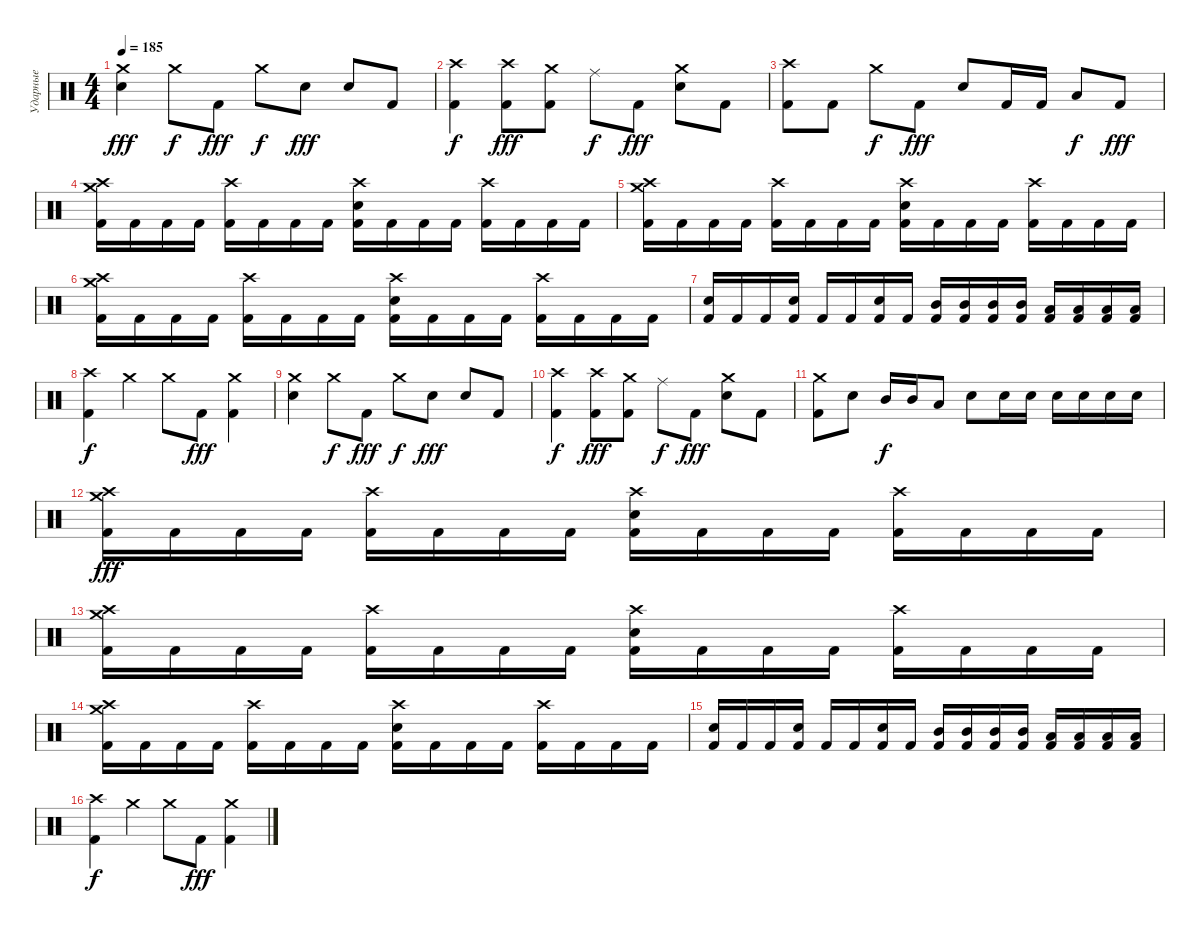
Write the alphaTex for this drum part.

\track ("Ударные" "Ударные") {instrument percussion}
\staff {score}
\articulation defaults
\ts (4 4)
\tempo 185
\clef neutral
\ks c
("Crash medium (hit)" "Electric Snare (hit)").4{dy fff} "Crash medium (hit)".8{dy f} "Kick (hit) 2".8{dy fff} "Crash medium (hit)".8{dy f} "Electric Snare (hit)".8{dy fff} "Electric Snare (hit)".8 "Kick (hit) 2".8 |
("Crash high (hit)" "Kick (hit) 2").4{dy f} ("Crash high (hit)" "Kick (hit) 2").8{dy fff} ("Crash medium (hit)" "Kick (hit) 2").8 "Ride (middle)".8{dy f} "Kick (hit) 2".8{dy fff} ("Crash medium (hit)" "Electric Snare (hit)").8 "Kick (hit) 2".8 |
("Crash high (hit)" "Kick (hit) 2").8 "Kick (hit) 2".8 "Crash medium (hit)".8{dy f} "Kick (hit) 2".8{dy fff} "Electric Snare (hit)".8 "Kick (hit) 2".16 "Kick (hit) 2".16 "Low Floor Tom (hit)".8{dy f} "Kick (hit) 2".8{dy fff} |
("Crash medium (hit)" "Crash high (hit)" "Kick (hit) 2").16 "Kick (hit) 2".16 "Kick (hit) 2".16 "Kick (hit) 2".16 ("Crash high (hit)" "Kick (hit) 2").16 "Kick (hit) 2".16 "Kick (hit) 2".16 "Kick (hit) 2".16 ("Crash high (hit)" "Electric Snare (hit)" "Kick (hit) 2").16 "Kick (hit) 2".16 "Kick (hit) 2".16 "Kick (hit) 2".16 ("Crash high (hit)" "Kick (hit) 2").16 "Kick (hit) 2".16 "Kick (hit) 2".16 "Kick (hit) 2".16 |
("Crash medium (hit)" "Crash high (hit)" "Kick (hit) 2").16 "Kick (hit) 2".16 "Kick (hit) 2".16 "Kick (hit) 2".16 ("Crash high (hit)" "Kick (hit) 2").16 "Kick (hit) 2".16 "Kick (hit) 2".16 "Kick (hit) 2".16 ("Crash high (hit)" "Electric Snare (hit)" "Kick (hit) 2").16 "Kick (hit) 2".16 "Kick (hit) 2".16 "Kick (hit) 2".16 ("Crash high (hit)" "Kick (hit) 2").16 "Kick (hit) 2".16 "Kick (hit) 2".16 "Kick (hit) 2".16 |
("Crash medium (hit)" "Crash high (hit)" "Kick (hit) 2").16 "Kick (hit) 2".16 "Kick (hit) 2".16 "Kick (hit) 2".16 ("Crash high (hit)" "Kick (hit) 2").16 "Kick (hit) 2".16 "Kick (hit) 2".16 "Kick (hit) 2".16 ("Crash high (hit)" "Electric Snare (hit)" "Kick (hit) 2").16 "Kick (hit) 2".16 "Kick (hit) 2".16 "Kick (hit) 2".16 ("Crash high (hit)" "Kick (hit) 2").16 "Kick (hit) 2".16 "Kick (hit) 2".16 "Kick (hit) 2".16 |
("Electric Snare (hit)" "Kick (hit) 2").16 "Kick (hit) 2".16 "Kick (hit) 2".16 ("Electric Snare (hit)" "Kick (hit) 2").16 "Kick (hit) 2".16 "Kick (hit) 2".16 ("Electric Snare (hit)" "Kick (hit) 2").16 "Kick (hit) 2".16 ("Mid Tom (hit)" "Kick (hit) 2").16 ("Mid Tom (hit)" "Kick (hit) 2").16 ("Mid Tom (hit)" "Kick (hit) 2").16 ("Mid Tom (hit)" "Kick (hit) 2").16 ("Low Tom (hit)" "Kick (hit) 2").16 ("Low Tom (hit)" "Kick (hit) 2").16 ("Low Tom (hit)" "Kick (hit) 2").16 ("Low Tom (hit)" "Kick (hit) 2").16 |
("Crash high (hit)" "Kick (hit) 2").4{dy f} "Crash medium (hit)".4 "Crash medium (hit)".8 "Kick (hit) 2".8{dy fff} ("Crash medium (hit)" "Kick (hit) 2").4 |
("Crash medium (hit)" "Electric Snare (hit)").4 "Crash medium (hit)".8{dy f} "Kick (hit) 2".8{dy fff} "Crash medium (hit)".8{dy f} "Electric Snare (hit)".8{dy fff} "Electric Snare (hit)".8 "Kick (hit) 2".8 |
("Crash high (hit)" "Kick (hit) 2").4{dy f} ("Crash high (hit)" "Kick (hit) 2").8{dy fff} ("Crash medium (hit)" "Kick (hit) 2").8 "Ride (middle)".8{dy f} "Kick (hit) 2".8{dy fff} ("Crash medium (hit)" "Electric Snare (hit)").8 "Kick (hit) 2".8 |
("Crash medium (hit)" "Kick (hit) 2").8 "Electric Snare (hit)".8 "Mid Tom (hit)".16{dy f} "Mid Tom (hit)".16 "Low Tom (hit)".8 "Electric Snare (hit)".8 "Electric Snare (hit)".16 "Electric Snare (hit)".16 "Electric Snare (hit)".16 "Electric Snare (hit)".16 "Electric Snare (hit)".16 "Electric Snare (hit)".16 |
("Crash medium (hit)" "Crash high (hit)" "Kick (hit) 2").16{dy fff} "Kick (hit) 2".16 "Kick (hit) 2".16 "Kick (hit) 2".16 ("Crash high (hit)" "Kick (hit) 2").16 "Kick (hit) 2".16 "Kick (hit) 2".16 "Kick (hit) 2".16 ("Crash high (hit)" "Electric Snare (hit)" "Kick (hit) 2").16 "Kick (hit) 2".16 "Kick (hit) 2".16 "Kick (hit) 2".16 ("Crash high (hit)" "Kick (hit) 2").16 "Kick (hit) 2".16 "Kick (hit) 2".16 "Kick (hit) 2".16 |
("Crash medium (hit)" "Crash high (hit)" "Kick (hit) 2").16 "Kick (hit) 2".16 "Kick (hit) 2".16 "Kick (hit) 2".16 ("Crash high (hit)" "Kick (hit) 2").16 "Kick (hit) 2".16 "Kick (hit) 2".16 "Kick (hit) 2".16 ("Crash high (hit)" "Electric Snare (hit)" "Kick (hit) 2").16 "Kick (hit) 2".16 "Kick (hit) 2".16 "Kick (hit) 2".16 ("Crash high (hit)" "Kick (hit) 2").16 "Kick (hit) 2".16 "Kick (hit) 2".16 "Kick (hit) 2".16 |
("Crash medium (hit)" "Crash high (hit)" "Kick (hit) 2").16 "Kick (hit) 2".16 "Kick (hit) 2".16 "Kick (hit) 2".16 ("Crash high (hit)" "Kick (hit) 2").16 "Kick (hit) 2".16 "Kick (hit) 2".16 "Kick (hit) 2".16 ("Crash high (hit)" "Electric Snare (hit)" "Kick (hit) 2").16 "Kick (hit) 2".16 "Kick (hit) 2".16 "Kick (hit) 2".16 ("Crash high (hit)" "Kick (hit) 2").16 "Kick (hit) 2".16 "Kick (hit) 2".16 "Kick (hit) 2".16 |
("Electric Snare (hit)" "Kick (hit) 2").16 "Kick (hit) 2".16 "Kick (hit) 2".16 ("Electric Snare (hit)" "Kick (hit) 2").16 "Kick (hit) 2".16 "Kick (hit) 2".16 ("Electric Snare (hit)" "Kick (hit) 2").16 "Kick (hit) 2".16 ("Mid Tom (hit)" "Kick (hit) 2").16 ("Mid Tom (hit)" "Kick (hit) 2").16 ("Mid Tom (hit)" "Kick (hit) 2").16 ("Mid Tom (hit)" "Kick (hit) 2").16 ("Low Tom (hit)" "Kick (hit) 2").16 ("Low Tom (hit)" "Kick (hit) 2").16 ("Low Tom (hit)" "Kick (hit) 2").16 ("Low Tom (hit)" "Kick (hit) 2").16 |
("Crash high (hit)" "Kick (hit) 2").4{dy f} "Crash medium (hit)".4 "Crash medium (hit)".8 "Kick (hit) 2".8{dy fff} ("Crash medium (hit)" "Kick (hit) 2").4
